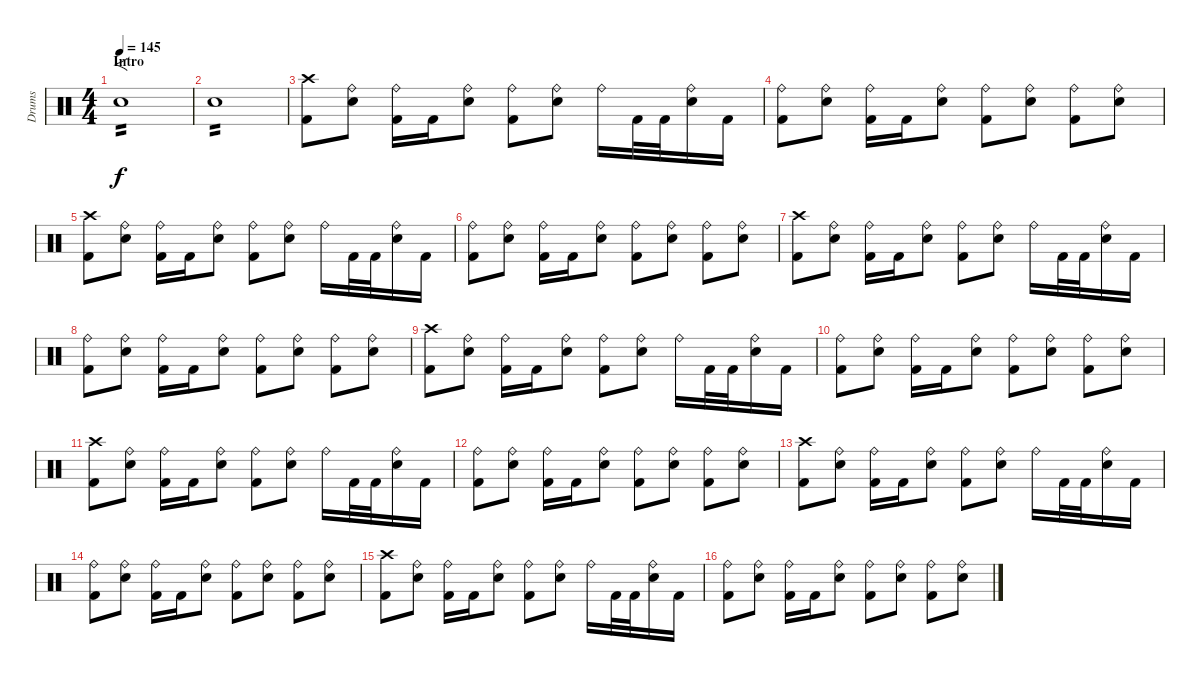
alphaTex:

\track ("Drums" "Drums") {instrument percussion}
\staff {score}
\articulation defaults
\ts (4 4)
\section ("" "Intro")
\tempo 145
\clef neutral
\ks c "Electric Snare (hit)".1{f tp 2 dy f}
|
"Electric Snare (hit)".1{tp 2} |
("Crash high (hit)" "Kick (hit) 2").8 ("Ride (bell)" "Electric Snare (hit)").8 ("Ride (bell)" "Kick (hit) 2").16 "Kick (hit) 2".16 ("Ride (bell)" "Electric Snare (hit)").8 ("Ride (bell)" "Kick (hit) 2").8 ("Ride (bell)" "Electric Snare (hit)").8 "Ride (bell)".16 "Kick (hit) 2".32 "Kick (hit) 2".32 ("Ride (bell)" "Electric Snare (hit)").16 "Kick (hit) 2".16 |
("Ride (bell)" "Kick (hit) 2").8 ("Ride (bell)" "Electric Snare (hit)").8 ("Ride (bell)" "Kick (hit) 2").16 "Kick (hit) 2".16 ("Ride (bell)" "Electric Snare (hit)").8 ("Ride (bell)" "Kick (hit) 2").8 ("Ride (bell)" "Electric Snare (hit)").8 ("Ride (bell)" "Kick (hit) 2").8 ("Ride (bell)" "Electric Snare (hit)").8 |
("Crash high (hit)" "Kick (hit) 2").8 ("Ride (bell)" "Electric Snare (hit)").8 ("Ride (bell)" "Kick (hit) 2").16 "Kick (hit) 2".16 ("Ride (bell)" "Electric Snare (hit)").8 ("Ride (bell)" "Kick (hit) 2").8 ("Ride (bell)" "Electric Snare (hit)").8 "Ride (bell)".16 "Kick (hit) 2".32 "Kick (hit) 2".32 ("Ride (bell)" "Electric Snare (hit)").16 "Kick (hit) 2".16 |
("Ride (bell)" "Kick (hit) 2").8 ("Ride (bell)" "Electric Snare (hit)").8 ("Ride (bell)" "Kick (hit) 2").16 "Kick (hit) 2".16 ("Ride (bell)" "Electric Snare (hit)").8 ("Ride (bell)" "Kick (hit) 2").8 ("Ride (bell)" "Electric Snare (hit)").8 ("Ride (bell)" "Kick (hit) 2").8 ("Ride (bell)" "Electric Snare (hit)").8 |
("Crash high (hit)" "Kick (hit) 2").8 ("Ride (bell)" "Electric Snare (hit)").8 ("Ride (bell)" "Kick (hit) 2").16 "Kick (hit) 2".16 ("Ride (bell)" "Electric Snare (hit)").8 ("Ride (bell)" "Kick (hit) 2").8 ("Ride (bell)" "Electric Snare (hit)").8 "Ride (bell)".16 "Kick (hit) 2".32 "Kick (hit) 2".32 ("Ride (bell)" "Electric Snare (hit)").16 "Kick (hit) 2".16 |
("Ride (bell)" "Kick (hit) 2").8 ("Ride (bell)" "Electric Snare (hit)").8 ("Ride (bell)" "Kick (hit) 2").16 "Kick (hit) 2".16 ("Ride (bell)" "Electric Snare (hit)").8 ("Ride (bell)" "Kick (hit) 2").8 ("Ride (bell)" "Electric Snare (hit)").8 ("Ride (bell)" "Kick (hit) 2").8 ("Ride (bell)" "Electric Snare (hit)").8 |
("Crash high (hit)" "Kick (hit) 2").8 ("Ride (bell)" "Electric Snare (hit)").8 ("Ride (bell)" "Kick (hit) 2").16 "Kick (hit) 2".16 ("Ride (bell)" "Electric Snare (hit)").8 ("Ride (bell)" "Kick (hit) 2").8 ("Ride (bell)" "Electric Snare (hit)").8 "Ride (bell)".16 "Kick (hit) 2".32 "Kick (hit) 2".32 ("Ride (bell)" "Electric Snare (hit)").16 "Kick (hit) 2".16 |
("Ride (bell)" "Kick (hit) 2").8 ("Ride (bell)" "Electric Snare (hit)").8 ("Ride (bell)" "Kick (hit) 2").16 "Kick (hit) 2".16 ("Ride (bell)" "Electric Snare (hit)").8 ("Ride (bell)" "Kick (hit) 2").8 ("Ride (bell)" "Electric Snare (hit)").8 ("Ride (bell)" "Kick (hit) 2").8 ("Ride (bell)" "Electric Snare (hit)").8 |
("Crash high (hit)" "Kick (hit) 2").8 ("Ride (bell)" "Electric Snare (hit)").8 ("Ride (bell)" "Kick (hit) 2").16 "Kick (hit) 2".16 ("Ride (bell)" "Electric Snare (hit)").8 ("Ride (bell)" "Kick (hit) 2").8 ("Ride (bell)" "Electric Snare (hit)").8 "Ride (bell)".16 "Kick (hit) 2".32 "Kick (hit) 2".32 ("Ride (bell)" "Electric Snare (hit)").16 "Kick (hit) 2".16 |
("Ride (bell)" "Kick (hit) 2").8 ("Ride (bell)" "Electric Snare (hit)").8 ("Ride (bell)" "Kick (hit) 2").16 "Kick (hit) 2".16 ("Ride (bell)" "Electric Snare (hit)").8 ("Ride (bell)" "Kick (hit) 2").8 ("Ride (bell)" "Electric Snare (hit)").8 ("Ride (bell)" "Kick (hit) 2").8 ("Ride (bell)" "Electric Snare (hit)").8 |
("Crash high (hit)" "Kick (hit) 2").8 ("Ride (bell)" "Electric Snare (hit)").8 ("Ride (bell)" "Kick (hit) 2").16 "Kick (hit) 2".16 ("Ride (bell)" "Electric Snare (hit)").8 ("Ride (bell)" "Kick (hit) 2").8 ("Ride (bell)" "Electric Snare (hit)").8 "Ride (bell)".16 "Kick (hit) 2".32 "Kick (hit) 2".32 ("Ride (bell)" "Electric Snare (hit)").16 "Kick (hit) 2".16 |
("Ride (bell)" "Kick (hit) 2").8 ("Ride (bell)" "Electric Snare (hit)").8 ("Ride (bell)" "Kick (hit) 2").16 "Kick (hit) 2".16 ("Ride (bell)" "Electric Snare (hit)").8 ("Ride (bell)" "Kick (hit) 2").8 ("Ride (bell)" "Electric Snare (hit)").8 ("Ride (bell)" "Kick (hit) 2").8 ("Ride (bell)" "Electric Snare (hit)").8 |
("Crash high (hit)" "Kick (hit) 2").8 ("Ride (bell)" "Electric Snare (hit)").8 ("Ride (bell)" "Kick (hit) 2").16 "Kick (hit) 2".16 ("Ride (bell)" "Electric Snare (hit)").8 ("Ride (bell)" "Kick (hit) 2").8 ("Ride (bell)" "Electric Snare (hit)").8 "Ride (bell)".16 "Kick (hit) 2".32 "Kick (hit) 2".32 ("Ride (bell)" "Electric Snare (hit)").16 "Kick (hit) 2".16 |
("Ride (bell)" "Kick (hit) 2").8 ("Ride (bell)" "Electric Snare (hit)").8 ("Ride (bell)" "Kick (hit) 2").16 "Kick (hit) 2".16 ("Ride (bell)" "Electric Snare (hit)").8 ("Ride (bell)" "Kick (hit) 2").8 ("Ride (bell)" "Electric Snare (hit)").8 ("Ride (bell)" "Kick (hit) 2").8 ("Ride (bell)" "Electric Snare (hit)").8
